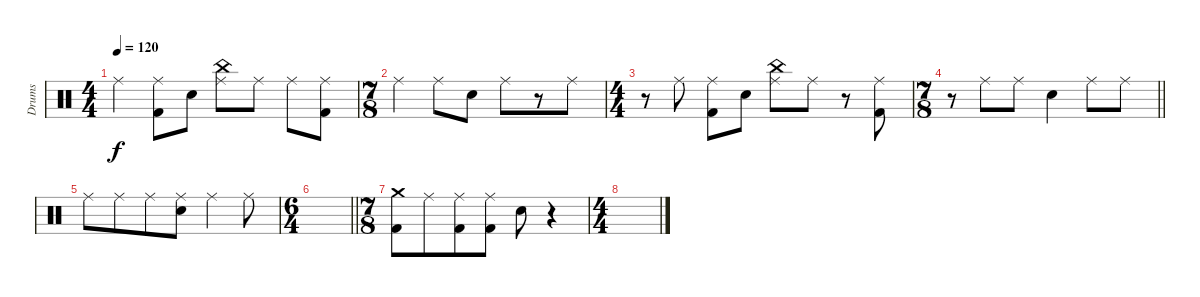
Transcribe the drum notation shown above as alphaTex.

\track ("Drums" "Drums") {instrument percussion}
\staff {score}
\articulation defaults
\ts (4 4)
\tempo 120
\clef neutral
\ks c "Ride (middle)".4{dy f}
("Ride (middle)" "Kick (hit) 2").8 "Snare (hit) 2".8 ("Ride (middle)" "China (hit)").8 "Ride (middle)".8 "Ride (middle)".8 ("Ride (middle)" "Kick (hit) 2").8 |
\ts (7 8)
"Ride (middle)".4 "Ride (middle)".8 "Snare (hit) 2".8 "Ride (middle)".8 r.8 "Ride (middle)".8 |
\ts (4 4)
r.8 "Ride (middle)".8 ("Ride (middle)" "Kick (hit) 2").8 "Snare (hit) 2".8 ("Ride (middle)" "China (hit)").8 "Ride (middle)".8 r.8 ("Ride (middle)" "Kick (hit) 2").8 |
\ts (7 8)
\barLineRight lightlight
r.8 "Ride (middle)".8 "Ride (middle)".8 "Snare (hit) 2".4 "Ride (middle)".8 "Ride (middle)".8 |
"Ride (middle)".8 "Ride (middle)".8 "Ride (middle)".8 ("Ride (middle)" "Snare (hit) 2").8 "Ride (middle)".4 "Ride (middle)".8 |
\ts (6 4)
\barLineRight lightlight
|
\ts (7 8)
("Crash medium (hit)" "Kick (hit) 2").8 "Ride (middle)".8 ("Ride (middle)" "Kick (hit) 2").8 ("Ride (middle)" "Kick (hit) 2").8 "Snare (hit) 2".8 r.4 |
\ts (4 4)
